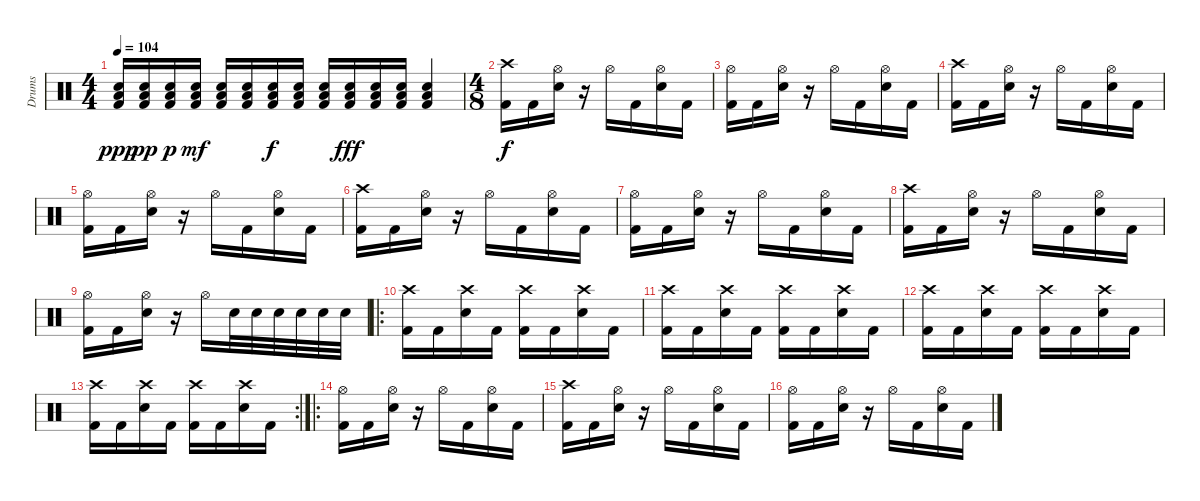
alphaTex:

\track ("Drums" "Drums") {instrument percussion}
\staff {score}
\articulation defaults
\ts (4 4)
\tempo 104
\clef neutral
\ks c
("Electric Snare (hit)" "Low Floor Tom (hit)" "Kick (hit) 2").16{dy ppp} ("Electric Snare (hit)" "Low Floor Tom (hit)" "Kick (hit) 2").16{dy pp} ("Electric Snare (hit)" "Low Floor Tom (hit)" "Kick (hit) 2").16{dy p} ("Electric Snare (hit)" "Low Floor Tom (hit)" "Kick (hit) 2").16{dy mf} ("Electric Snare (hit)" "Low Floor Tom (hit)" "Kick (hit) 2").16 ("Electric Snare (hit)" "Low Floor Tom (hit)" "Kick (hit) 2").16 ("Electric Snare (hit)" "Low Floor Tom (hit)" "Kick (hit) 2").16{dy f} ("Electric Snare (hit)" "Low Floor Tom (hit)" "Kick (hit) 2").16 ("Electric Snare (hit)" "Low Floor Tom (hit)" "Kick (hit) 2").16 ("Electric Snare (hit)" "Low Floor Tom (hit)" "Kick (hit) 2").16{dy fff} ("Electric Snare (hit)" "Low Floor Tom (hit)" "Kick (hit) 2").16 ("Electric Snare (hit)" "Low Floor Tom (hit)" "Kick (hit) 2").16 ("Electric Snare (hit)" "Low Floor Tom (hit)" "Kick (hit) 2").4 |
\ts (4 8)
("Crash high (hit)" "Kick (hit) 2").16{dy f} "Kick (hit) 2".16 ("Hi-Hat (open)" "Electric Snare (hit)").16 r.16 "Hi-Hat (open)".16 "Kick (hit) 2".16 ("Hi-Hat (open)" "Electric Snare (hit)").16 "Kick (hit) 2".16 |
("Hi-Hat (open)" "Kick (hit) 2").16 "Kick (hit) 2".16 ("Hi-Hat (open)" "Electric Snare (hit)").16 r.16 "Hi-Hat (open)".16 "Kick (hit) 2".16 ("Hi-Hat (open)" "Electric Snare (hit)").16 "Kick (hit) 2".16 |
("Crash high (hit)" "Kick (hit) 2").16 "Kick (hit) 2".16 ("Hi-Hat (open)" "Electric Snare (hit)").16 r.16 "Hi-Hat (open)".16 "Kick (hit) 2".16 ("Hi-Hat (open)" "Electric Snare (hit)").16 "Kick (hit) 2".16 |
("Hi-Hat (open)" "Kick (hit) 2").16 "Kick (hit) 2".16 ("Hi-Hat (open)" "Electric Snare (hit)").16 r.16 "Hi-Hat (open)".16 "Kick (hit) 2".16 ("Hi-Hat (open)" "Electric Snare (hit)").16 "Kick (hit) 2".16 |
("Crash high (hit)" "Kick (hit) 2").16 "Kick (hit) 2".16 ("Hi-Hat (open)" "Electric Snare (hit)").16 r.16 "Hi-Hat (open)".16 "Kick (hit) 2".16 ("Hi-Hat (open)" "Electric Snare (hit)").16 "Kick (hit) 2".16 |
("Hi-Hat (open)" "Kick (hit) 2").16 "Kick (hit) 2".16 ("Hi-Hat (open)" "Electric Snare (hit)").16 r.16 "Hi-Hat (open)".16 "Kick (hit) 2".16 ("Hi-Hat (open)" "Electric Snare (hit)").16 "Kick (hit) 2".16 |
("Crash high (hit)" "Kick (hit) 2").16 "Kick (hit) 2".16 ("Hi-Hat (open)" "Electric Snare (hit)").16 r.16 "Hi-Hat (open)".16 "Kick (hit) 2".16 ("Hi-Hat (open)" "Electric Snare (hit)").16 "Kick (hit) 2".16 |
("Hi-Hat (open)" "Kick (hit) 2").16 "Kick (hit) 2".16 ("Hi-Hat (open)" "Electric Snare (hit)").16 r.16 "Hi-Hat (open)".16 "Electric Snare (hit)".32 "Electric Snare (hit)".32 "Electric Snare (hit)".32 "Electric Snare (hit)".32 "Electric Snare (hit)".32 "Electric Snare (hit)".32 |
\ro
("Crash high (hit)" "Kick (hit) 2").16 "Kick (hit) 2".16 ("Crash high (hit)" "Electric Snare (hit)").16 "Kick (hit) 2".16 ("Crash high (hit)" "Kick (hit) 2").16 "Kick (hit) 2".16 ("Crash high (hit)" "Electric Snare (hit)").16 "Kick (hit) 2".16 |
("Crash high (hit)" "Kick (hit) 2").16 "Kick (hit) 2".16 ("Crash high (hit)" "Electric Snare (hit)").16 "Kick (hit) 2".16 ("Crash high (hit)" "Kick (hit) 2").16 "Kick (hit) 2".16 ("Crash high (hit)" "Electric Snare (hit)").16 "Kick (hit) 2".16 |
("Crash high (hit)" "Kick (hit) 2").16 "Kick (hit) 2".16 ("Crash high (hit)" "Electric Snare (hit)").16 "Kick (hit) 2".16 ("Crash high (hit)" "Kick (hit) 2").16 "Kick (hit) 2".16 ("Crash high (hit)" "Electric Snare (hit)").16 "Kick (hit) 2".16 |
\rc 2
("Crash high (hit)" "Kick (hit) 2").16 "Kick (hit) 2".16 ("Crash high (hit)" "Electric Snare (hit)").16 "Kick (hit) 2".16 ("Crash high (hit)" "Kick (hit) 2").16 "Kick (hit) 2".16 ("Crash high (hit)" "Electric Snare (hit)").16 "Kick (hit) 2".16 |
\ro
("Hi-Hat (open)" "Kick (hit) 2").16 "Kick (hit) 2".16 ("Hi-Hat (open)" "Electric Snare (hit)").16 r.16 "Hi-Hat (open)".16 "Kick (hit) 2".16 ("Hi-Hat (open)" "Electric Snare (hit)").16 "Kick (hit) 2".16 |
("Crash high (hit)" "Kick (hit) 2").16 "Kick (hit) 2".16 ("Hi-Hat (open)" "Electric Snare (hit)").16 r.16 "Hi-Hat (open)".16 "Kick (hit) 2".16 ("Hi-Hat (open)" "Electric Snare (hit)").16 "Kick (hit) 2".16 |
("Hi-Hat (open)" "Kick (hit) 2").16 "Kick (hit) 2".16 ("Hi-Hat (open)" "Electric Snare (hit)").16 r.16 "Hi-Hat (open)".16 "Kick (hit) 2".16 ("Hi-Hat (open)" "Electric Snare (hit)").16 "Kick (hit) 2".16
